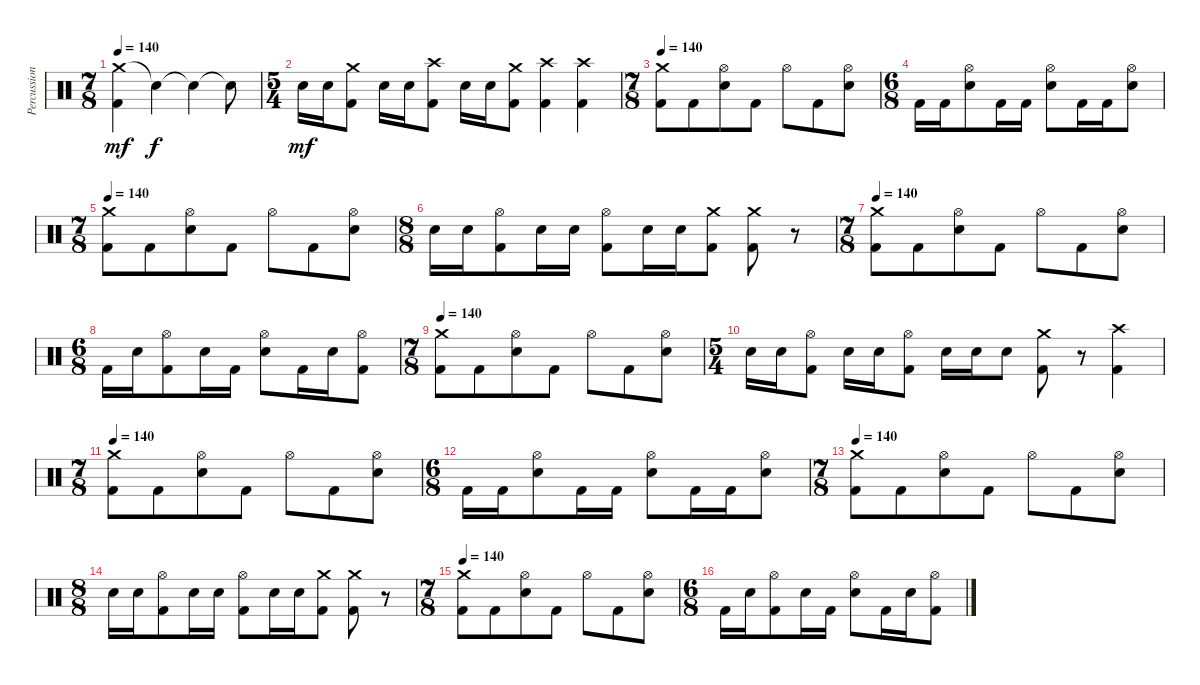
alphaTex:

\track ("Percussion" "Percussion") {instrument percussion}
\staff {score}
\articulation defaults
\ts (7 8)
\tempo 140
\clef neutral
\ks c
("Crash medium (hit)" "Kick (hit) 2").4{dy mf} "Snare (hit)"{t}.4{dy f} "Snare (hit)"{t}.4 "Snare (hit)"{t}.8 |
\ts (5 4)
"Snare (hit) 2".16{dy mf} "Snare (hit) 2".16 ("Crash medium (hit)" "Kick (hit) 2").8 "Snare (hit) 2".16 "Snare (hit) 2".16 ("Crash high (hit)" "Kick (hit) 2").8 "Snare (hit) 2".16 "Snare (hit) 2".16 ("Crash medium (hit)" "Kick (hit) 2").8 ("Crash high (hit)" "Kick (hit) 2").4 ("Crash high (hit)" "Kick (hit) 2").4 |
\ts (7 8)
\tempo 140
("Crash medium (hit)" "Kick (hit) 2").8 "Kick (hit) 2".8 ("Hi-Hat (open)" "Snare (hit) 2").8 "Kick (hit) 2".8 "Hi-Hat (open)".8 "Kick (hit) 2".8 ("Hi-Hat (open)" "Snare (hit) 2").8 |
\ts (6 8)
"Kick (hit) 2".16 "Kick (hit) 2".16 ("Hi-Hat (open)" "Snare (hit) 2").8 "Kick (hit) 2".16 "Kick (hit) 2".16 ("Hi-Hat (open)" "Snare (hit) 2").8 "Kick (hit) 2".16 "Kick (hit) 2".16 ("Hi-Hat (open)" "Snare (hit) 2").8 |
\ts (7 8)
\tempo 140
("Crash medium (hit)" "Kick (hit) 2").8 "Kick (hit) 2".8 ("Hi-Hat (open)" "Snare (hit) 2").8 "Kick (hit) 2".8 "Hi-Hat (open)".8 "Kick (hit) 2".8 ("Hi-Hat (open)" "Snare (hit) 2").8 |
\ts (8 8)
"Snare (hit) 2".16 "Snare (hit) 2".16 ("Hi-Hat (open)" "Kick (hit) 2").8 "Snare (hit) 2".16 "Snare (hit) 2".16 ("Hi-Hat (open)" "Kick (hit) 2").8 "Snare (hit) 2".16 "Snare (hit) 2".16 ("Crash medium (hit)" "Kick (hit) 2").8 ("Crash medium (hit)" "Kick (hit) 2").8 r.8 |
\ts (7 8)
\tempo 140
("Crash medium (hit)" "Kick (hit) 2").8 "Kick (hit) 2".8 ("Hi-Hat (open)" "Snare (hit) 2").8 "Kick (hit) 2".8 "Hi-Hat (open)".8 "Kick (hit) 2".8 ("Hi-Hat (open)" "Snare (hit) 2").8 |
\ts (6 8)
"Kick (hit) 2".16 "Snare (hit) 2".16 ("Hi-Hat (open)" "Kick (hit) 2").8 "Snare (hit) 2".16 "Kick (hit) 2".16 ("Hi-Hat (open)" "Snare (hit) 2").8 "Kick (hit) 2".16 "Snare (hit) 2".16 ("Hi-Hat (open)" "Kick (hit) 2").8 |
\ts (7 8)
\tempo 140
("Crash medium (hit)" "Kick (hit) 2").8 "Kick (hit) 2".8 ("Hi-Hat (open)" "Snare (hit) 2").8 "Kick (hit) 2".8 "Hi-Hat (open)".8 "Kick (hit) 2".8 ("Hi-Hat (open)" "Snare (hit) 2").8 |
\ts (5 4)
"Snare (hit) 2".16 "Snare (hit) 2".16 ("Hi-Hat (open)" "Kick (hit) 2").8 "Snare (hit) 2".16 "Snare (hit) 2".16 ("Hi-Hat (open)" "Kick (hit) 2").8 "Snare (hit) 2".16 "Snare (hit) 2".16 "Snare (hit) 2".8 ("Crash medium (hit)" "Kick (hit) 2").8 r.8 ("Crash high (hit)" "Kick (hit) 2").4 |
\ts (7 8)
\tempo 140
("Crash medium (hit)" "Kick (hit) 2").8 "Kick (hit) 2".8 ("Hi-Hat (open)" "Snare (hit) 2").8 "Kick (hit) 2".8 "Hi-Hat (open)".8 "Kick (hit) 2".8 ("Hi-Hat (open)" "Snare (hit) 2").8 |
\ts (6 8)
"Kick (hit) 2".16 "Kick (hit) 2".16 ("Hi-Hat (open)" "Snare (hit) 2").8 "Kick (hit) 2".16 "Kick (hit) 2".16 ("Hi-Hat (open)" "Snare (hit) 2").8 "Kick (hit) 2".16 "Kick (hit) 2".16 ("Hi-Hat (open)" "Snare (hit) 2").8 |
\ts (7 8)
\tempo 140
("Crash medium (hit)" "Kick (hit) 2").8 "Kick (hit) 2".8 ("Hi-Hat (open)" "Snare (hit) 2").8 "Kick (hit) 2".8 "Hi-Hat (open)".8 "Kick (hit) 2".8 ("Hi-Hat (open)" "Snare (hit) 2").8 |
\ts (8 8)
"Snare (hit) 2".16 "Snare (hit) 2".16 ("Hi-Hat (open)" "Kick (hit) 2").8 "Snare (hit) 2".16 "Snare (hit) 2".16 ("Hi-Hat (open)" "Kick (hit) 2").8 "Snare (hit) 2".16 "Snare (hit) 2".16 ("Crash medium (hit)" "Kick (hit) 2").8 ("Crash medium (hit)" "Kick (hit) 2").8 r.8 |
\ts (7 8)
\tempo 140
("Crash medium (hit)" "Kick (hit) 2").8 "Kick (hit) 2".8 ("Hi-Hat (open)" "Snare (hit) 2").8 "Kick (hit) 2".8 "Hi-Hat (open)".8 "Kick (hit) 2".8 ("Hi-Hat (open)" "Snare (hit) 2").8 |
\ts (6 8)
"Kick (hit) 2".16 "Snare (hit) 2".16 ("Hi-Hat (open)" "Kick (hit) 2").8 "Snare (hit) 2".16 "Kick (hit) 2".16 ("Hi-Hat (open)" "Snare (hit) 2").8 "Kick (hit) 2".16 "Snare (hit) 2".16 ("Hi-Hat (open)" "Kick (hit) 2").8
